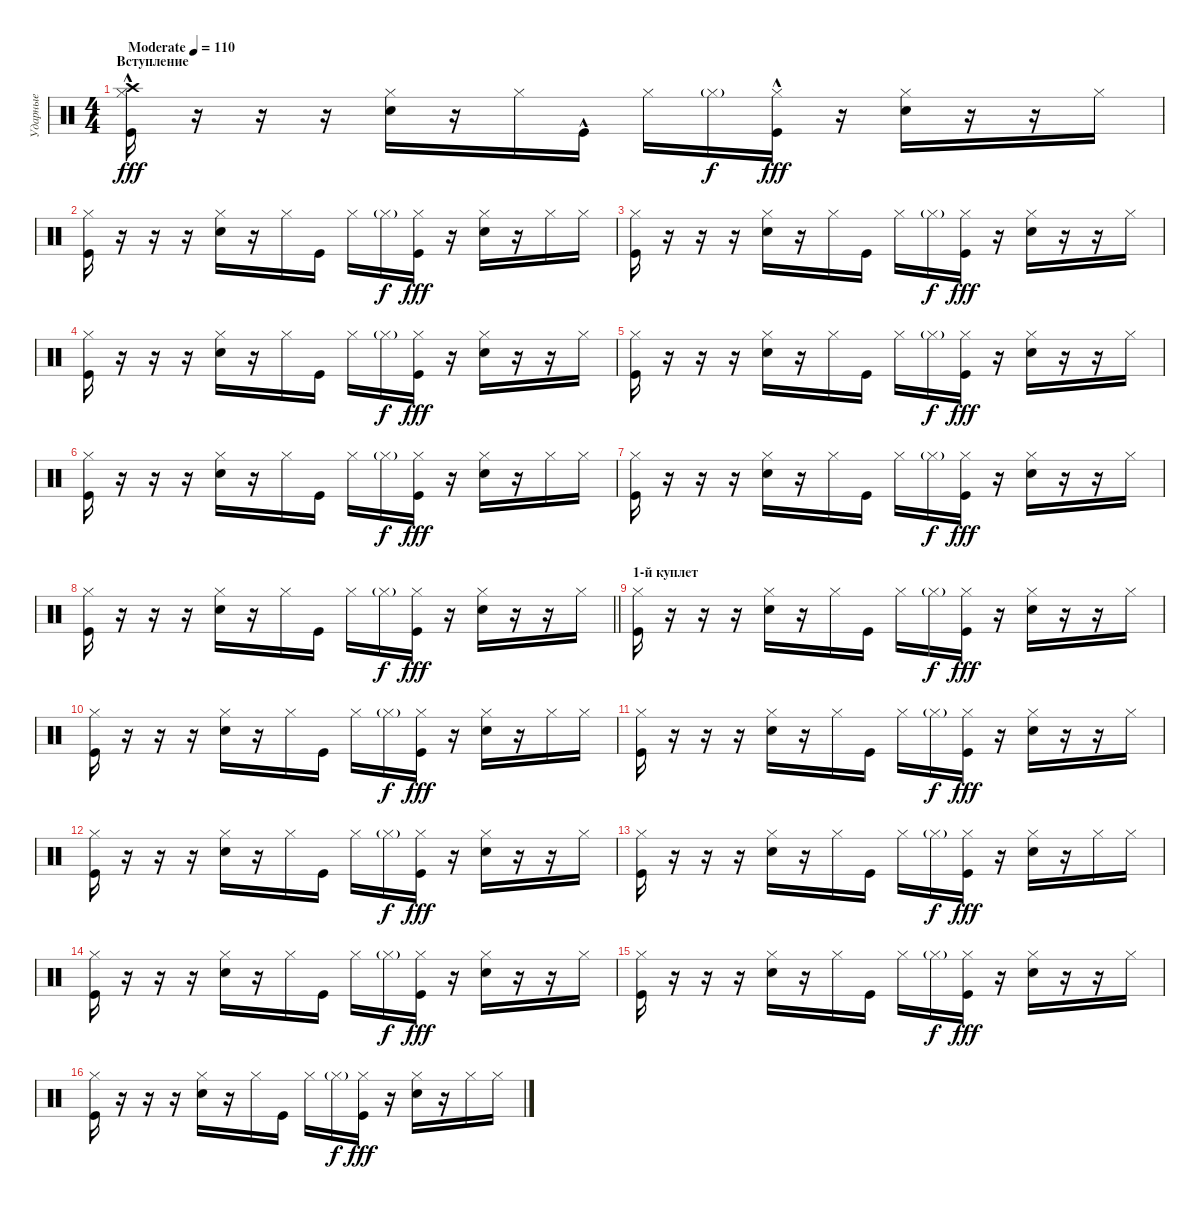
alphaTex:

\track ("Ударные" "Ударные") {instrument percussion}
\staff {score}
\articulation defaults
\ts (4 4)
\section ("" "Вступление")
\tempo (110 "Moderate")
\clef neutral
\ks c
("Hi-Hat (closed)" "Kick (hit)"{hac} "Crash high (hit)").16{dy fff} r.16 r.16 r.16 ("Hi-Hat (closed)" "Electric Snare (hit)").16 r.16 "Hi-Hat (closed)".16 "Kick (hit)"{hac}.16 "Hi-Hat (closed)".16 "Hi-Hat (closed)"{g}.16{dy f} ("Hi-Hat (closed)" "Kick (hit)"{hac}).16{dy fff} r.16 ("Hi-Hat (closed)" "Electric Snare (hit)").16 r.16 r.16 "Hi-Hat (closed)".16 |
("Hi-Hat (closed)" "Kick (hit)").16 r.16 r.16 r.16 ("Hi-Hat (closed)" "Electric Snare (hit)").16 r.16 "Hi-Hat (closed)".16 "Kick (hit)".16 "Hi-Hat (closed)".16 "Hi-Hat (closed)"{g}.16{dy f} ("Hi-Hat (closed)" "Kick (hit)").16{dy fff} r.16 ("Hi-Hat (closed)" "Electric Snare (hit)").16 r.16 "Hi-Hat (closed)".16 "Hi-Hat (closed)".16 |
("Hi-Hat (closed)" "Kick (hit)").16 r.16 r.16 r.16 ("Hi-Hat (closed)" "Electric Snare (hit)").16 r.16 "Hi-Hat (closed)".16 "Kick (hit)".16 "Hi-Hat (closed)".16 "Hi-Hat (closed)"{g}.16{dy f} ("Hi-Hat (closed)" "Kick (hit)").16{dy fff} r.16 ("Hi-Hat (closed)" "Electric Snare (hit)").16 r.16 r.16 "Hi-Hat (closed)".16 |
("Hi-Hat (closed)" "Kick (hit)").16 r.16 r.16 r.16 ("Hi-Hat (closed)" "Electric Snare (hit)").16 r.16 "Hi-Hat (closed)".16 "Kick (hit)".16 "Hi-Hat (closed)".16 "Hi-Hat (closed)"{g}.16{dy f} ("Hi-Hat (closed)" "Kick (hit)").16{dy fff} r.16 ("Hi-Hat (closed)" "Electric Snare (hit)").16 r.16 r.16 "Hi-Hat (closed)".16 |
("Hi-Hat (closed)" "Kick (hit)").16 r.16 r.16 r.16 ("Hi-Hat (closed)" "Electric Snare (hit)").16 r.16 "Hi-Hat (closed)".16 "Kick (hit)".16 "Hi-Hat (closed)".16 "Hi-Hat (closed)"{g}.16{dy f} ("Hi-Hat (closed)" "Kick (hit)").16{dy fff} r.16 ("Hi-Hat (closed)" "Electric Snare (hit)").16 r.16 r.16 "Hi-Hat (closed)".16 |
("Hi-Hat (closed)" "Kick (hit)").16 r.16 r.16 r.16 ("Hi-Hat (closed)" "Electric Snare (hit)").16 r.16 "Hi-Hat (closed)".16 "Kick (hit)".16 "Hi-Hat (closed)".16 "Hi-Hat (closed)"{g}.16{dy f} ("Hi-Hat (closed)" "Kick (hit)").16{dy fff} r.16 ("Hi-Hat (closed)" "Electric Snare (hit)").16 r.16 "Hi-Hat (closed)".16 "Hi-Hat (closed)".16 |
("Hi-Hat (closed)" "Kick (hit)").16 r.16 r.16 r.16 ("Hi-Hat (closed)" "Electric Snare (hit)").16 r.16 "Hi-Hat (closed)".16 "Kick (hit)".16 "Hi-Hat (closed)".16 "Hi-Hat (closed)"{g}.16{dy f} ("Hi-Hat (closed)" "Kick (hit)").16{dy fff} r.16 ("Hi-Hat (closed)" "Electric Snare (hit)").16 r.16 r.16 "Hi-Hat (closed)".16 |
\barLineRight lightlight
("Hi-Hat (closed)" "Kick (hit)").16 r.16 r.16 r.16 ("Hi-Hat (closed)" "Electric Snare (hit)").16 r.16 "Hi-Hat (closed)".16 "Kick (hit)".16 "Hi-Hat (closed)".16 "Hi-Hat (closed)"{g}.16{dy f} ("Hi-Hat (closed)" "Kick (hit)").16{dy fff} r.16 ("Hi-Hat (closed)" "Electric Snare (hit)").16 r.16 r.16 "Hi-Hat (closed)".16 |
\section ("" "1-й куплет")
("Hi-Hat (closed)" "Kick (hit)").16 r.16 r.16 r.16 ("Hi-Hat (closed)" "Electric Snare (hit)").16 r.16 "Hi-Hat (closed)".16 "Kick (hit)".16 "Hi-Hat (closed)".16 "Hi-Hat (closed)"{g}.16{dy f} ("Hi-Hat (closed)" "Kick (hit)").16{dy fff} r.16 ("Hi-Hat (closed)" "Electric Snare (hit)").16 r.16 r.16 "Hi-Hat (closed)".16 |
("Hi-Hat (closed)" "Kick (hit)").16 r.16 r.16 r.16 ("Hi-Hat (closed)" "Electric Snare (hit)").16 r.16 "Hi-Hat (closed)".16 "Kick (hit)".16 "Hi-Hat (closed)".16 "Hi-Hat (closed)"{g}.16{dy f} ("Hi-Hat (closed)" "Kick (hit)").16{dy fff} r.16 ("Hi-Hat (closed)" "Electric Snare (hit)").16 r.16 "Hi-Hat (closed)".16 "Hi-Hat (closed)".16 |
("Hi-Hat (closed)" "Kick (hit)").16 r.16 r.16 r.16 ("Hi-Hat (closed)" "Electric Snare (hit)").16 r.16 "Hi-Hat (closed)".16 "Kick (hit)".16 "Hi-Hat (closed)".16 "Hi-Hat (closed)"{g}.16{dy f} ("Hi-Hat (closed)" "Kick (hit)").16{dy fff} r.16 ("Hi-Hat (closed)" "Electric Snare (hit)").16 r.16 r.16 "Hi-Hat (closed)".16 |
("Hi-Hat (closed)" "Kick (hit)").16 r.16 r.16 r.16 ("Hi-Hat (closed)" "Electric Snare (hit)").16 r.16 "Hi-Hat (closed)".16 "Kick (hit)".16 "Hi-Hat (closed)".16 "Hi-Hat (closed)"{g}.16{dy f} ("Hi-Hat (closed)" "Kick (hit)").16{dy fff} r.16 ("Hi-Hat (closed)" "Electric Snare (hit)").16 r.16 r.16 "Hi-Hat (closed)".16 |
("Hi-Hat (closed)" "Kick (hit)").16 r.16 r.16 r.16 ("Hi-Hat (closed)" "Electric Snare (hit)").16 r.16 "Hi-Hat (closed)".16 "Kick (hit)".16 "Hi-Hat (closed)".16 "Hi-Hat (closed)"{g}.16{dy f} ("Hi-Hat (closed)" "Kick (hit)").16{dy fff} r.16 ("Hi-Hat (closed)" "Electric Snare (hit)").16 r.16 "Hi-Hat (closed)".16 "Hi-Hat (closed)".16 |
("Hi-Hat (closed)" "Kick (hit)").16 r.16 r.16 r.16 ("Hi-Hat (closed)" "Electric Snare (hit)").16 r.16 "Hi-Hat (closed)".16 "Kick (hit)".16 "Hi-Hat (closed)".16 "Hi-Hat (closed)"{g}.16{dy f} ("Hi-Hat (closed)" "Kick (hit)").16{dy fff} r.16 ("Hi-Hat (closed)" "Electric Snare (hit)").16 r.16 r.16 "Hi-Hat (closed)".16 |
("Hi-Hat (closed)" "Kick (hit)").16 r.16 r.16 r.16 ("Hi-Hat (closed)" "Electric Snare (hit)").16 r.16 "Hi-Hat (closed)".16 "Kick (hit)".16 "Hi-Hat (closed)".16 "Hi-Hat (closed)"{g}.16{dy f} ("Hi-Hat (closed)" "Kick (hit)").16{dy fff} r.16 ("Hi-Hat (closed)" "Electric Snare (hit)").16 r.16 r.16 "Hi-Hat (closed)".16 |
("Hi-Hat (closed)" "Kick (hit)").16 r.16 r.16 r.16 ("Hi-Hat (closed)" "Electric Snare (hit)").16 r.16 "Hi-Hat (closed)".16 "Kick (hit)".16 "Hi-Hat (closed)".16 "Hi-Hat (closed)"{g}.16{dy f} ("Hi-Hat (closed)" "Kick (hit)").16{dy fff} r.16 ("Hi-Hat (closed)" "Electric Snare (hit)").16 r.16 "Hi-Hat (closed)".16 "Hi-Hat (closed)".16
